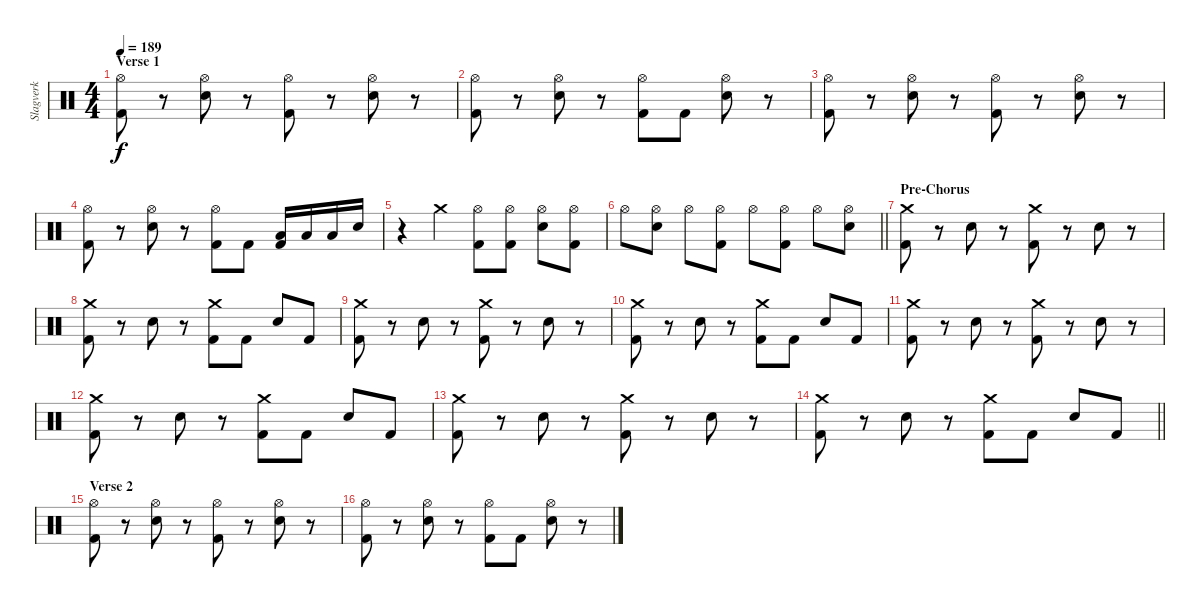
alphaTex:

\track ("Slagverk" "Slagverk") {instrument percussion}
\staff {score}
\articulation defaults
\ts (4 4)
\section ("" "Verse 1")
\tempo 189
\clef neutral
\ks c
("Hi-Hat (open)" "Kick (hit) 2").8{dy f} r.8 ("Hi-Hat (open)" "Snare (hit) 2").8 r.8 ("Hi-Hat (open)" "Kick (hit) 2").8 r.8 ("Hi-Hat (open)" "Snare (hit) 2").8 r.8 |
("Hi-Hat (open)" "Kick (hit) 2").8 r.8 ("Hi-Hat (open)" "Snare (hit) 2").8 r.8 ("Hi-Hat (open)" "Kick (hit) 2").8 "Kick (hit) 2".8 ("Hi-Hat (open)" "Snare (hit) 2").8 r.8 |
("Hi-Hat (open)" "Kick (hit) 2").8 r.8 ("Hi-Hat (open)" "Snare (hit) 2").8 r.8 ("Hi-Hat (open)" "Kick (hit) 2").8 r.8 ("Hi-Hat (open)" "Snare (hit) 2").8 r.8 |
("Hi-Hat (open)" "Kick (hit) 2").8 r.8 ("Hi-Hat (open)" "Snare (hit) 2").8 r.8 ("Hi-Hat (open)" "Kick (hit) 2").8 "Kick (hit) 2".8 ("Low Tom (hit)" "Kick (hit) 2").16 "Low Tom (hit)".16 "Low Tom (hit)".16 "Snare (hit) 2".16 |
r.4 "Crash medium (hit)".4 ("Hi-Hat (open)" "Kick (hit) 2").8 ("Hi-Hat (open)" "Kick (hit) 2").8 ("Hi-Hat (open)" "Snare (hit) 2").8 ("Hi-Hat (open)" "Kick (hit) 2").8 |
\barLineRight lightlight "Hi-Hat (open)".8
("Hi-Hat (open)" "Snare (hit) 2").8 "Hi-Hat (open)".8 ("Hi-Hat (open)" "Kick (hit) 2").8 "Hi-Hat (open)".8 ("Hi-Hat (open)" "Kick (hit) 2").8 "Hi-Hat (open)".8 ("Hi-Hat (open)" "Snare (hit) 2").8 |
\section ("" "Pre-Chorus")
("Crash medium (hit)" "Kick (hit) 2").8 r.8 "Snare (hit) 2".8 r.8 ("Crash medium (hit)" "Kick (hit) 2").8 r.8 "Snare (hit) 2".8 r.8 |
("Crash medium (hit)" "Kick (hit) 2").8 r.8 "Snare (hit) 2".8 r.8 ("Crash medium (hit)" "Kick (hit) 2").8 "Kick (hit) 2".8 "Snare (hit) 2".8 "Kick (hit) 2".8 |
("Crash medium (hit)" "Kick (hit) 2").8 r.8 "Snare (hit) 2".8 r.8 ("Crash medium (hit)" "Kick (hit) 2").8 r.8 "Snare (hit) 2".8 r.8 |
("Crash medium (hit)" "Kick (hit) 2").8 r.8 "Snare (hit) 2".8 r.8 ("Crash medium (hit)" "Kick (hit) 2").8 "Kick (hit) 2".8 "Snare (hit) 2".8 "Kick (hit) 2".8 |
("Crash medium (hit)" "Kick (hit) 2").8 r.8 "Snare (hit) 2".8 r.8 ("Crash medium (hit)" "Kick (hit) 2").8 r.8 "Snare (hit) 2".8 r.8 |
("Crash medium (hit)" "Kick (hit) 2").8 r.8 "Snare (hit) 2".8 r.8 ("Crash medium (hit)" "Kick (hit) 2").8 "Kick (hit) 2".8 "Snare (hit) 2".8 "Kick (hit) 2".8 |
("Crash medium (hit)" "Kick (hit) 2").8 r.8 "Snare (hit) 2".8 r.8 ("Crash medium (hit)" "Kick (hit) 2").8 r.8 "Snare (hit) 2".8 r.8 |
\barLineRight lightlight
("Crash medium (hit)" "Kick (hit) 2").8 r.8 "Snare (hit) 2".8 r.8 ("Crash medium (hit)" "Kick (hit) 2").8 "Kick (hit) 2".8 "Snare (hit) 2".8 "Kick (hit) 2".8 |
\section ("" "Verse 2")
("Hi-Hat (open)" "Kick (hit) 2").8 r.8 ("Hi-Hat (open)" "Snare (hit) 2").8 r.8 ("Hi-Hat (open)" "Kick (hit) 2").8 r.8 ("Hi-Hat (open)" "Snare (hit) 2").8 r.8 |
("Hi-Hat (open)" "Kick (hit) 2").8 r.8 ("Hi-Hat (open)" "Snare (hit) 2").8 r.8 ("Hi-Hat (open)" "Kick (hit) 2").8 "Kick (hit) 2".8 ("Hi-Hat (open)" "Snare (hit) 2").8 r.8
